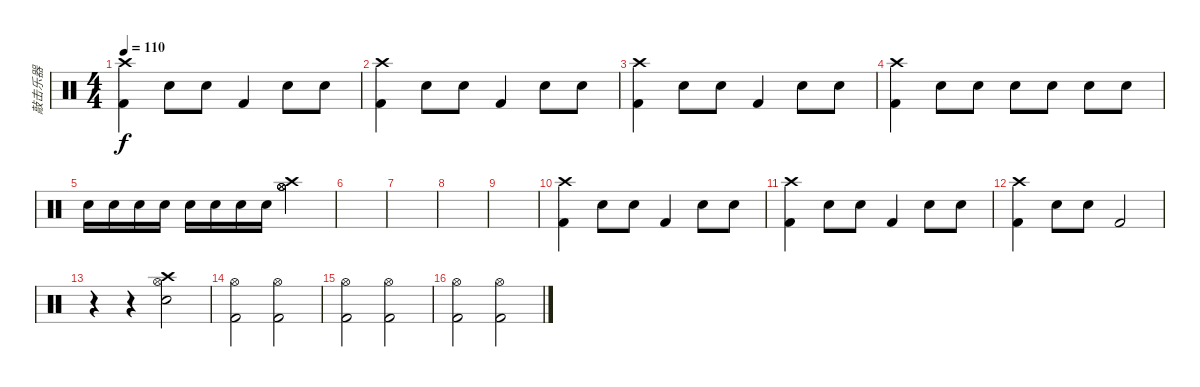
\track ("敲击乐器" "敲击乐器") {instrument percussion}
\staff {score}
\articulation defaults
\ts (4 4)
\tempo 110
\clef neutral
\ks c
("Kick (hit) 2" "Crash high (hit)").4{dy f} "Snare (hit) 2".8 "Snare (hit) 2".8 "Kick (hit) 2".4 "Snare (hit) 2".8 "Snare (hit) 2".8 |
("Kick (hit) 2" "Crash high (hit)").4 "Snare (hit) 2".8 "Snare (hit) 2".8 "Kick (hit) 2".4 "Snare (hit) 2".8 "Snare (hit) 2".8 |
("Kick (hit) 2" "Crash high (hit)").4 "Snare (hit) 2".8 "Snare (hit) 2".8 "Kick (hit) 2".4 "Snare (hit) 2".8 "Snare (hit) 2".8 |
("Kick (hit) 2" "Crash high (hit)").4 "Snare (hit) 2".8 "Snare (hit) 2".8 "Snare (hit) 2".8 "Snare (hit) 2".8 "Snare (hit) 2".8 "Snare (hit) 2".8 |
"Snare (hit) 2".16 "Snare (hit) 2".16 "Snare (hit) 2".16 "Snare (hit) 2".16 "Snare (hit) 2".16 "Snare (hit) 2".16 "Snare (hit) 2".16 "Snare (hit) 2".16 ("Hi-Hat (open)" "Hi-Hat (open)" "Crash high (hit)" "Hi-Hat (open)").2 |
|
|
|
|
("Kick (hit) 2" "Crash high (hit)").4 "Snare (hit) 2".8 "Snare (hit) 2".8 "Kick (hit) 2".4 "Snare (hit) 2".8 "Snare (hit) 2".8 |
("Kick (hit) 2" "Crash high (hit)").4 "Snare (hit) 2".8 "Snare (hit) 2".8 "Kick (hit) 2".4 "Snare (hit) 2".8 "Snare (hit) 2".8 |
("Kick (hit) 2" "Crash high (hit)").4 "Snare (hit) 2".8 "Snare (hit) 2".8 "Kick (hit) 2".2 |
r.4 r.4 ("Crash high (hit)" "Hi-Hat (open)" "Electric Snare (hit)").2 |
("Hi-Hat (open)" "Kick (hit) 2").2 ("Hi-Hat (open)" "Kick (hit) 2").2 |
("Hi-Hat (open)" "Kick (hit) 2").2 ("Hi-Hat (open)" "Kick (hit) 2").2 |
("Hi-Hat (open)" "Kick (hit) 2").2 ("Hi-Hat (open)" "Kick (hit) 2").2
